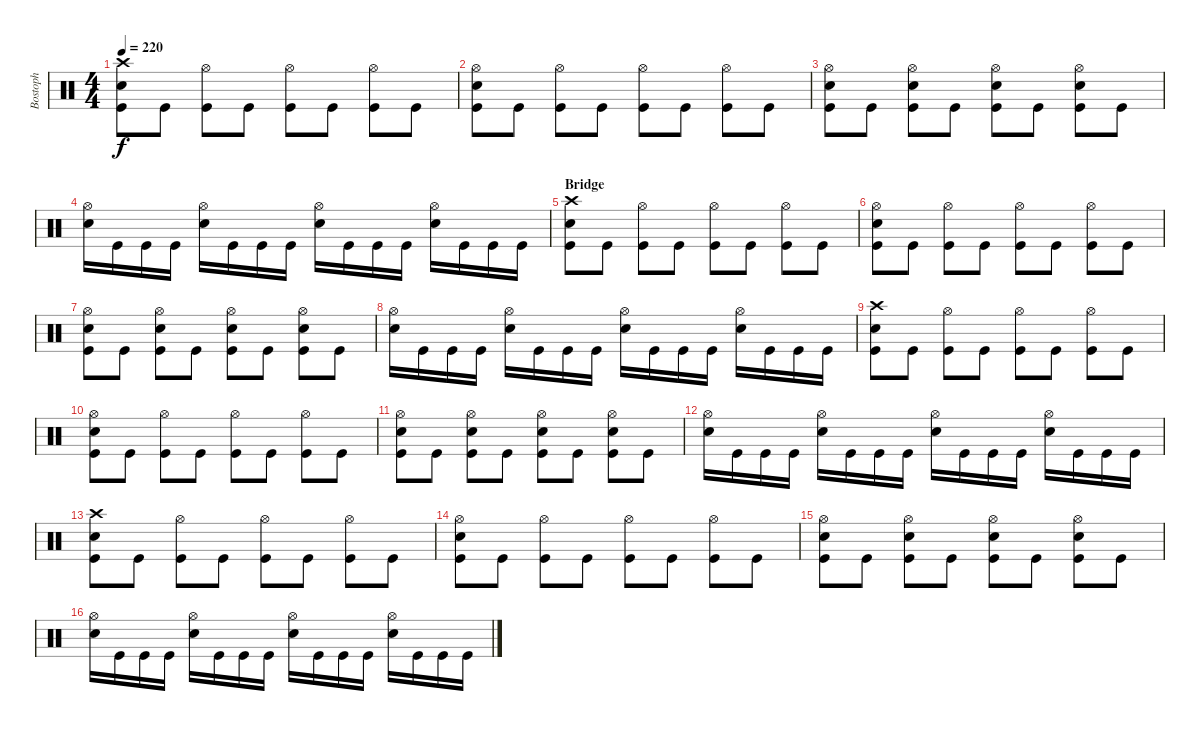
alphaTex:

\track ("Bostoph" "Bostoph") {instrument percussion}
\staff {score}
\articulation defaults
\ts (4 4)
\tempo 220
\clef neutral
\ks c
("Crash high (hit)" "Snare (hit) 2" "Kick (hit)").8{dy f} "Kick (hit)".8 ("Hi-Hat (open)" "Kick (hit)").8 "Kick (hit)".8 ("Hi-Hat (open)" "Kick (hit)").8 "Kick (hit)".8 ("Hi-Hat (open)" "Kick (hit)").8 "Kick (hit)".8 |
("Hi-Hat (open)" "Snare (hit) 2" "Kick (hit)").8 "Kick (hit)".8 ("Hi-Hat (open)" "Kick (hit)").8 "Kick (hit)".8 ("Hi-Hat (open)" "Kick (hit)").8 "Kick (hit)".8 ("Hi-Hat (open)" "Kick (hit)").8 "Kick (hit)".8 |
("Hi-Hat (open)" "Snare (hit) 2" "Kick (hit)").8 "Kick (hit)".8 ("Hi-Hat (open)" "Snare (hit) 2" "Kick (hit)").8 "Kick (hit)".8 ("Hi-Hat (open)" "Snare (hit) 2" "Kick (hit)").8 "Kick (hit)".8 ("Hi-Hat (open)" "Snare (hit) 2" "Kick (hit)").8 "Kick (hit)".8 |
("Hi-Hat (open)" "Snare (hit) 2").16 "Kick (hit)".16 "Kick (hit)".16 "Kick (hit)".16 ("Hi-Hat (open)" "Snare (hit) 2").16 "Kick (hit)".16 "Kick (hit)".16 "Kick (hit)".16 ("Hi-Hat (open)" "Snare (hit) 2").16 "Kick (hit)".16 "Kick (hit)".16 "Kick (hit)".16 ("Hi-Hat (open)" "Snare (hit) 2").16 "Kick (hit)".16 "Kick (hit)".16 "Kick (hit)".16 |
\section ("" "Bridge")
("Crash high (hit)" "Snare (hit) 2" "Kick (hit)").8 "Kick (hit)".8 ("Hi-Hat (open)" "Kick (hit)").8 "Kick (hit)".8 ("Hi-Hat (open)" "Kick (hit)").8 "Kick (hit)".8 ("Hi-Hat (open)" "Kick (hit)").8 "Kick (hit)".8 |
("Hi-Hat (open)" "Snare (hit) 2" "Kick (hit)").8 "Kick (hit)".8 ("Hi-Hat (open)" "Kick (hit)").8 "Kick (hit)".8 ("Hi-Hat (open)" "Kick (hit)").8 "Kick (hit)".8 ("Hi-Hat (open)" "Kick (hit)").8 "Kick (hit)".8 |
("Hi-Hat (open)" "Snare (hit) 2" "Kick (hit)").8 "Kick (hit)".8 ("Hi-Hat (open)" "Snare (hit) 2" "Kick (hit)").8 "Kick (hit)".8 ("Hi-Hat (open)" "Snare (hit) 2" "Kick (hit)").8 "Kick (hit)".8 ("Hi-Hat (open)" "Snare (hit) 2" "Kick (hit)").8 "Kick (hit)".8 |
("Hi-Hat (open)" "Snare (hit) 2").16 "Kick (hit)".16 "Kick (hit)".16 "Kick (hit)".16 ("Hi-Hat (open)" "Snare (hit) 2").16 "Kick (hit)".16 "Kick (hit)".16 "Kick (hit)".16 ("Hi-Hat (open)" "Snare (hit) 2").16 "Kick (hit)".16 "Kick (hit)".16 "Kick (hit)".16 ("Hi-Hat (open)" "Snare (hit) 2").16 "Kick (hit)".16 "Kick (hit)".16 "Kick (hit)".16 |
("Crash high (hit)" "Snare (hit) 2" "Kick (hit)").8 "Kick (hit)".8 ("Hi-Hat (open)" "Kick (hit)").8 "Kick (hit)".8 ("Hi-Hat (open)" "Kick (hit)").8 "Kick (hit)".8 ("Hi-Hat (open)" "Kick (hit)").8 "Kick (hit)".8 |
("Hi-Hat (open)" "Snare (hit) 2" "Kick (hit)").8 "Kick (hit)".8 ("Hi-Hat (open)" "Kick (hit)").8 "Kick (hit)".8 ("Hi-Hat (open)" "Kick (hit)").8 "Kick (hit)".8 ("Hi-Hat (open)" "Kick (hit)").8 "Kick (hit)".8 |
("Hi-Hat (open)" "Snare (hit) 2" "Kick (hit)").8 "Kick (hit)".8 ("Hi-Hat (open)" "Snare (hit) 2" "Kick (hit)").8 "Kick (hit)".8 ("Hi-Hat (open)" "Snare (hit) 2" "Kick (hit)").8 "Kick (hit)".8 ("Hi-Hat (open)" "Snare (hit) 2" "Kick (hit)").8 "Kick (hit)".8 |
("Hi-Hat (open)" "Snare (hit) 2").16 "Kick (hit)".16 "Kick (hit)".16 "Kick (hit)".16 ("Hi-Hat (open)" "Snare (hit) 2").16 "Kick (hit)".16 "Kick (hit)".16 "Kick (hit)".16 ("Hi-Hat (open)" "Snare (hit) 2").16 "Kick (hit)".16 "Kick (hit)".16 "Kick (hit)".16 ("Hi-Hat (open)" "Snare (hit) 2").16 "Kick (hit)".16 "Kick (hit)".16 "Kick (hit)".16 |
("Crash high (hit)" "Snare (hit) 2" "Kick (hit)").8 "Kick (hit)".8 ("Hi-Hat (open)" "Kick (hit)").8 "Kick (hit)".8 ("Hi-Hat (open)" "Kick (hit)").8 "Kick (hit)".8 ("Hi-Hat (open)" "Kick (hit)").8 "Kick (hit)".8 |
("Hi-Hat (open)" "Snare (hit) 2" "Kick (hit)").8 "Kick (hit)".8 ("Hi-Hat (open)" "Kick (hit)").8 "Kick (hit)".8 ("Hi-Hat (open)" "Kick (hit)").8 "Kick (hit)".8 ("Hi-Hat (open)" "Kick (hit)").8 "Kick (hit)".8 |
("Hi-Hat (open)" "Snare (hit) 2" "Kick (hit)").8 "Kick (hit)".8 ("Hi-Hat (open)" "Snare (hit) 2" "Kick (hit)").8 "Kick (hit)".8 ("Hi-Hat (open)" "Snare (hit) 2" "Kick (hit)").8 "Kick (hit)".8 ("Hi-Hat (open)" "Snare (hit) 2" "Kick (hit)").8 "Kick (hit)".8 |
("Hi-Hat (open)" "Snare (hit) 2").16 "Kick (hit)".16 "Kick (hit)".16 "Kick (hit)".16 ("Hi-Hat (open)" "Snare (hit) 2").16 "Kick (hit)".16 "Kick (hit)".16 "Kick (hit)".16 ("Hi-Hat (open)" "Snare (hit) 2").16 "Kick (hit)".16 "Kick (hit)".16 "Kick (hit)".16 ("Hi-Hat (open)" "Snare (hit) 2").16 "Kick (hit)".16 "Kick (hit)".16 "Kick (hit)".16
